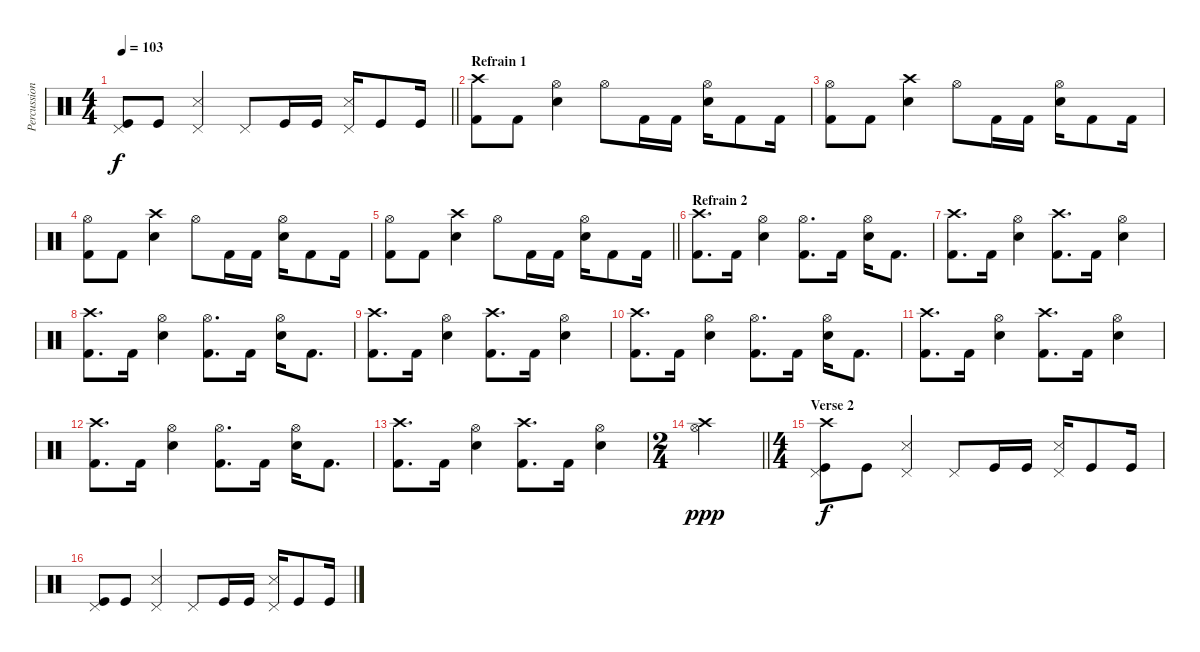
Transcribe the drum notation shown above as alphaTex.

\track ("Percussions" "Percussion") {instrument percussion}
\staff {score}
\articulation defaults
\ts (4 4)
\tempo 103
\clef neutral
\barLineRight lightlight
\ks c
("Pedal Hi-Hat (hit)" "Kick (hit)").8{dy f} "Kick (hit)".8 ("Pedal Hi-Hat (hit)" "Snare (side stick) 3").4 "Pedal Hi-Hat (hit)".8 "Kick (hit)".16 "Kick (hit)".16 ("Pedal Hi-Hat (hit)" "Snare (side stick) 3").16 "Kick (hit)".8 "Kick (hit)".16 |
\section ("" "Refrain 1")
("Crash high (hit)" "Kick (hit) 2").8 "Kick (hit) 2".8 ("Hi-Hat (open)" "Electric Snare (hit)").4 "Hi-Hat (open)".8 "Kick (hit) 2".16 "Kick (hit) 2".16 ("Hi-Hat (open)" "Electric Snare (hit)").16 "Kick (hit) 2".8 "Kick (hit) 2".16 |
("Hi-Hat (open)" "Kick (hit) 2").8 "Kick (hit) 2".8 ("Crash high (hit)" "Electric Snare (hit)").4 "Hi-Hat (open)".8 "Kick (hit) 2".16 "Kick (hit) 2".16 ("Hi-Hat (open)" "Electric Snare (hit)").16 "Kick (hit) 2".8 "Kick (hit) 2".16 |
("Hi-Hat (open)" "Kick (hit) 2").8 "Kick (hit) 2".8 ("Crash high (hit)" "Electric Snare (hit)").4 "Hi-Hat (open)".8 "Kick (hit) 2".16 "Kick (hit) 2".16 ("Hi-Hat (open)" "Electric Snare (hit)").16 "Kick (hit) 2".8 "Kick (hit) 2".16 |
\barLineRight lightlight
("Hi-Hat (open)" "Kick (hit) 2").8 "Kick (hit) 2".8 ("Crash high (hit)" "Electric Snare (hit)").4 "Hi-Hat (open)".8 "Kick (hit) 2".16 "Kick (hit) 2".16 ("Hi-Hat (open)" "Electric Snare (hit)").16 "Kick (hit) 2".8 "Kick (hit) 2".16 |
\section ("" "Refrain 2")
("Crash high (hit)" "Kick (hit) 2").8{d} "Kick (hit) 2".16 ("Hi-Hat (open)" "Electric Snare (hit)").4 ("Hi-Hat (open)" "Kick (hit) 2").8{d} "Kick (hit) 2".16 ("Hi-Hat (open)" "Electric Snare (hit)").16 "Kick (hit) 2".8{d} |
("Crash high (hit)" "Kick (hit) 2").8{d} "Kick (hit) 2".16 ("Hi-Hat (open)" "Electric Snare (hit)").4 ("Crash high (hit)" "Kick (hit) 2").8{d} "Kick (hit) 2".16 ("Hi-Hat (open)" "Electric Snare (hit)").4 |
("Crash high (hit)" "Kick (hit) 2").8{d} "Kick (hit) 2".16 ("Hi-Hat (open)" "Electric Snare (hit)").4 ("Hi-Hat (open)" "Kick (hit) 2").8{d} "Kick (hit) 2".16 ("Hi-Hat (open)" "Electric Snare (hit)").16 "Kick (hit) 2".8{d} |
("Crash high (hit)" "Kick (hit) 2").8{d} "Kick (hit) 2".16 ("Hi-Hat (open)" "Electric Snare (hit)").4 ("Crash high (hit)" "Kick (hit) 2").8{d} "Kick (hit) 2".16 ("Hi-Hat (open)" "Electric Snare (hit)").4 |
("Crash high (hit)" "Kick (hit) 2").8{d} "Kick (hit) 2".16 ("Hi-Hat (open)" "Electric Snare (hit)").4 ("Hi-Hat (open)" "Kick (hit) 2").8{d} "Kick (hit) 2".16 ("Hi-Hat (open)" "Electric Snare (hit)").16 "Kick (hit) 2".8{d} |
("Crash high (hit)" "Kick (hit) 2").8{d} "Kick (hit) 2".16 ("Hi-Hat (open)" "Electric Snare (hit)").4 ("Crash high (hit)" "Kick (hit) 2").8{d} "Kick (hit) 2".16 ("Hi-Hat (open)" "Electric Snare (hit)").4 |
("Crash high (hit)" "Kick (hit) 2").8{d} "Kick (hit) 2".16 ("Hi-Hat (open)" "Electric Snare (hit)").4 ("Hi-Hat (open)" "Kick (hit) 2").8{d} "Kick (hit) 2".16 ("Hi-Hat (open)" "Electric Snare (hit)").16 "Kick (hit) 2".8{d} |
("Crash high (hit)" "Kick (hit) 2").8{d} "Kick (hit) 2".16 ("Hi-Hat (open)" "Electric Snare (hit)").4 ("Crash high (hit)" "Kick (hit) 2").8{d} "Kick (hit) 2".16 ("Hi-Hat (open)" "Electric Snare (hit)").4 |
\ts (2 4)
\barLineRight lightlight
("Hi-Hat (open)" "Crash high (hit)").2{dy ppp} |
\ts (4 4)
\section ("" "Verse 2")
("Crash high (hit)" "Pedal Hi-Hat (hit)" "Kick (hit)").8{dy f} "Kick (hit)".8 ("Pedal Hi-Hat (hit)" "Snare (side stick) 3").4 "Pedal Hi-Hat (hit)".8 "Kick (hit)".16 "Kick (hit)".16 ("Pedal Hi-Hat (hit)" "Snare (side stick) 3").16 "Kick (hit)".8 "Kick (hit)".16 |
("Pedal Hi-Hat (hit)" "Kick (hit)").8 "Kick (hit)".8 ("Pedal Hi-Hat (hit)" "Snare (side stick) 3").4 "Pedal Hi-Hat (hit)".8 "Kick (hit)".16 "Kick (hit)".16 ("Pedal Hi-Hat (hit)" "Snare (side stick) 3").16 "Kick (hit)".8 "Kick (hit)".16
